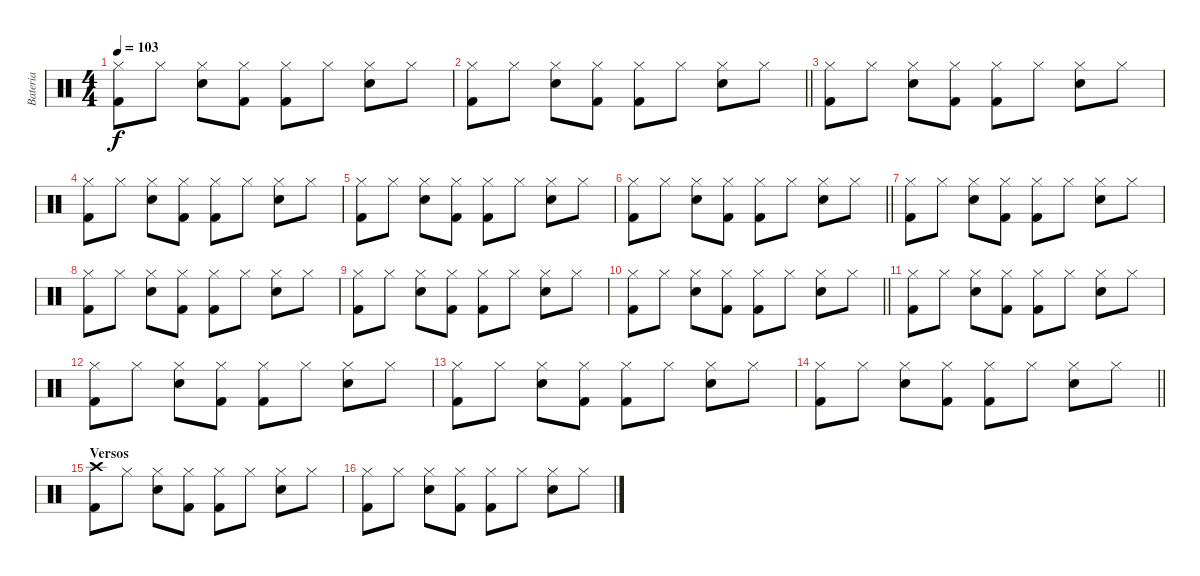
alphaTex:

\track ("Bateria" "Bateria") {instrument percussion}
\staff {score}
\articulation defaults
\ts (4 4)
\tempo 103
\clef neutral
\ks c
("Hi-Hat (closed)" "Kick (hit) 2").8{dy f} "Hi-Hat (closed)".8 ("Hi-Hat (closed)" "Snare (hit) 2").8 ("Hi-Hat (closed)" "Kick (hit) 2").8 ("Hi-Hat (closed)" "Kick (hit) 2").8 "Hi-Hat (closed)".8 ("Hi-Hat (closed)" "Snare (hit) 2").8 "Hi-Hat (closed)".8 |
\barLineRight lightlight
("Hi-Hat (closed)" "Kick (hit) 2").8 "Hi-Hat (closed)".8 ("Hi-Hat (closed)" "Snare (hit) 2").8 ("Hi-Hat (closed)" "Kick (hit) 2").8 ("Hi-Hat (closed)" "Kick (hit) 2").8 "Hi-Hat (closed)".8 ("Hi-Hat (closed)" "Snare (hit) 2").8 "Hi-Hat (closed)".8 |
("Hi-Hat (closed)" "Kick (hit) 2").8 "Hi-Hat (closed)".8 ("Hi-Hat (closed)" "Snare (hit) 2").8 ("Hi-Hat (closed)" "Kick (hit) 2").8 ("Hi-Hat (closed)" "Kick (hit) 2").8 "Hi-Hat (closed)".8 ("Hi-Hat (closed)" "Snare (hit) 2").8 "Hi-Hat (closed)".8 |
("Hi-Hat (closed)" "Kick (hit) 2").8 "Hi-Hat (closed)".8 ("Hi-Hat (closed)" "Snare (hit) 2").8 ("Hi-Hat (closed)" "Kick (hit) 2").8 ("Hi-Hat (closed)" "Kick (hit) 2").8 "Hi-Hat (closed)".8 ("Hi-Hat (closed)" "Snare (hit) 2").8 "Hi-Hat (closed)".8 |
("Hi-Hat (closed)" "Kick (hit) 2").8 "Hi-Hat (closed)".8 ("Hi-Hat (closed)" "Snare (hit) 2").8 ("Hi-Hat (closed)" "Kick (hit) 2").8 ("Hi-Hat (closed)" "Kick (hit) 2").8 "Hi-Hat (closed)".8 ("Hi-Hat (closed)" "Snare (hit) 2").8 "Hi-Hat (closed)".8 |
\barLineRight lightlight
("Hi-Hat (closed)" "Kick (hit) 2").8 "Hi-Hat (closed)".8 ("Hi-Hat (closed)" "Snare (hit) 2").8 ("Hi-Hat (closed)" "Kick (hit) 2").8 ("Hi-Hat (closed)" "Kick (hit) 2").8 "Hi-Hat (closed)".8 ("Hi-Hat (closed)" "Snare (hit) 2").8 "Hi-Hat (closed)".8 |
("Hi-Hat (closed)" "Kick (hit) 2").8 "Hi-Hat (closed)".8 ("Hi-Hat (closed)" "Snare (hit) 2").8 ("Hi-Hat (closed)" "Kick (hit) 2").8 ("Hi-Hat (closed)" "Kick (hit) 2").8 "Hi-Hat (closed)".8 ("Hi-Hat (closed)" "Snare (hit) 2").8 "Hi-Hat (closed)".8 |
("Hi-Hat (closed)" "Kick (hit) 2").8 "Hi-Hat (closed)".8 ("Hi-Hat (closed)" "Snare (hit) 2").8 ("Hi-Hat (closed)" "Kick (hit) 2").8 ("Hi-Hat (closed)" "Kick (hit) 2").8 "Hi-Hat (closed)".8 ("Hi-Hat (closed)" "Snare (hit) 2").8 "Hi-Hat (closed)".8 |
("Hi-Hat (closed)" "Kick (hit) 2").8 "Hi-Hat (closed)".8 ("Hi-Hat (closed)" "Snare (hit) 2").8 ("Hi-Hat (closed)" "Kick (hit) 2").8 ("Hi-Hat (closed)" "Kick (hit) 2").8 "Hi-Hat (closed)".8 ("Hi-Hat (closed)" "Snare (hit) 2").8 "Hi-Hat (closed)".8 |
\barLineRight lightlight
("Hi-Hat (closed)" "Kick (hit) 2").8 "Hi-Hat (closed)".8 ("Hi-Hat (closed)" "Snare (hit) 2").8 ("Hi-Hat (closed)" "Kick (hit) 2").8 ("Hi-Hat (closed)" "Kick (hit) 2").8 "Hi-Hat (closed)".8 ("Hi-Hat (closed)" "Snare (hit) 2").8 "Hi-Hat (closed)".8 |
("Hi-Hat (closed)" "Kick (hit) 2").8 "Hi-Hat (closed)".8 ("Hi-Hat (closed)" "Snare (hit) 2").8 ("Hi-Hat (closed)" "Kick (hit) 2").8 ("Hi-Hat (closed)" "Kick (hit) 2").8 "Hi-Hat (closed)".8 ("Hi-Hat (closed)" "Snare (hit) 2").8 "Hi-Hat (closed)".8 |
("Hi-Hat (closed)" "Kick (hit) 2").8 "Hi-Hat (closed)".8 ("Hi-Hat (closed)" "Snare (hit) 2").8 ("Hi-Hat (closed)" "Kick (hit) 2").8 ("Hi-Hat (closed)" "Kick (hit) 2").8 "Hi-Hat (closed)".8 ("Hi-Hat (closed)" "Snare (hit) 2").8 "Hi-Hat (closed)".8 |
("Hi-Hat (closed)" "Kick (hit) 2").8 "Hi-Hat (closed)".8 ("Hi-Hat (closed)" "Snare (hit) 2").8 ("Hi-Hat (closed)" "Kick (hit) 2").8 ("Hi-Hat (closed)" "Kick (hit) 2").8 "Hi-Hat (closed)".8 ("Hi-Hat (closed)" "Snare (hit) 2").8 "Hi-Hat (closed)".8 |
\barLineRight lightlight
("Hi-Hat (closed)" "Kick (hit) 2").8 "Hi-Hat (closed)".8 ("Hi-Hat (closed)" "Snare (hit) 2").8 ("Hi-Hat (closed)" "Kick (hit) 2").8 ("Hi-Hat (closed)" "Kick (hit) 2").8 "Hi-Hat (closed)".8 ("Hi-Hat (closed)" "Snare (hit) 2").8 "Hi-Hat (closed)".8 |
\section ("" "Versos")
("Crash high (hit)" "Kick (hit) 2").8 "Hi-Hat (closed)".8 ("Hi-Hat (closed)" "Snare (hit) 2").8 ("Hi-Hat (closed)" "Kick (hit) 2").8 ("Hi-Hat (closed)" "Kick (hit) 2").8 "Hi-Hat (closed)".8 ("Hi-Hat (closed)" "Snare (hit) 2").8 "Hi-Hat (closed)".8 |
("Hi-Hat (closed)" "Kick (hit) 2").8 "Hi-Hat (closed)".8 ("Hi-Hat (closed)" "Snare (hit) 2").8 ("Hi-Hat (closed)" "Kick (hit) 2").8 ("Hi-Hat (closed)" "Kick (hit) 2").8 "Hi-Hat (closed)".8 ("Hi-Hat (closed)" "Snare (hit) 2").8 "Hi-Hat (closed)".8
